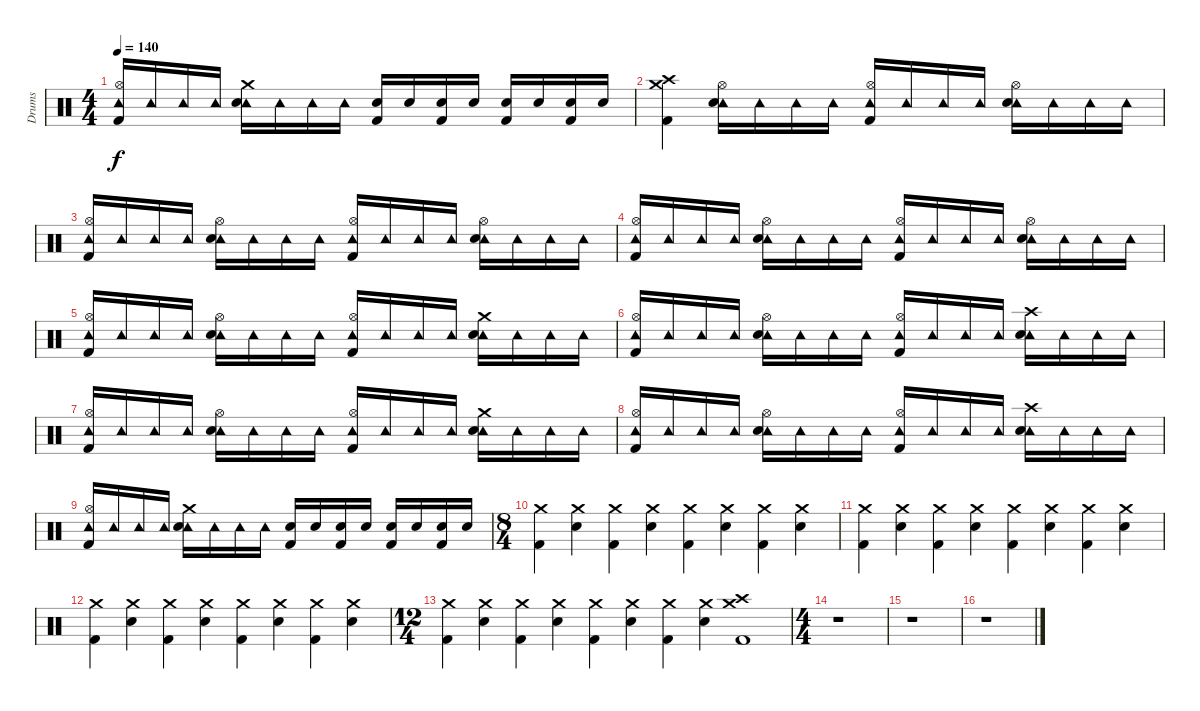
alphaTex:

\track ("Drums" "Drums") {instrument percussion}
\staff {score}
\articulation defaults
\ts (4 4)
\tempo 140
\clef neutral
\ks c
("Tambourine (hit)" "Hi-Hat (open)" "Kick (hit) 2").16{dy f} "Tambourine (hit)".16 "Tambourine (hit)".16 "Tambourine (hit)".16 ("Tambourine (hit)" "Crash medium (hit)" "Snare (hit) 2").16 "Tambourine (hit)".16 "Tambourine (hit)".16 "Tambourine (hit)".16 ("Kick (hit) 2" "Snare (hit) 2").16 "Snare (hit) 2".16 ("Kick (hit) 2" "Snare (hit) 2").16 "Snare (hit) 2".16 ("Kick (hit) 2" "Snare (hit) 2").16 "Snare (hit) 2".16 ("Kick (hit) 2" "Snare (hit) 2").16 "Snare (hit) 2".16 |
("Crash medium (hit)" "Crash high (hit)" "Kick (hit) 2").4 ("Tambourine (hit)" "Hi-Hat (open)" "Snare (hit) 2").16 "Tambourine (hit)".16 "Tambourine (hit)".16 "Tambourine (hit)".16 ("Tambourine (hit)" "Hi-Hat (open)" "Kick (hit) 2").16 "Tambourine (hit)".16 "Tambourine (hit)".16 "Tambourine (hit)".16 ("Tambourine (hit)" "Hi-Hat (open)" "Snare (hit) 2").16 "Tambourine (hit)".16 "Tambourine (hit)".16 "Tambourine (hit)".16 |
("Tambourine (hit)" "Hi-Hat (open)" "Kick (hit) 2").16 "Tambourine (hit)".16 "Tambourine (hit)".16 "Tambourine (hit)".16 ("Tambourine (hit)" "Hi-Hat (open)" "Snare (hit) 2").16 "Tambourine (hit)".16 "Tambourine (hit)".16 "Tambourine (hit)".16 ("Tambourine (hit)" "Hi-Hat (open)" "Kick (hit) 2").16 "Tambourine (hit)".16 "Tambourine (hit)".16 "Tambourine (hit)".16 ("Tambourine (hit)" "Hi-Hat (open)" "Snare (hit) 2").16 "Tambourine (hit)".16 "Tambourine (hit)".16 "Tambourine (hit)".16 |
("Tambourine (hit)" "Hi-Hat (open)" "Kick (hit) 2").16 "Tambourine (hit)".16 "Tambourine (hit)".16 "Tambourine (hit)".16 ("Tambourine (hit)" "Hi-Hat (open)" "Snare (hit) 2").16 "Tambourine (hit)".16 "Tambourine (hit)".16 "Tambourine (hit)".16 ("Tambourine (hit)" "Hi-Hat (open)" "Kick (hit) 2").16 "Tambourine (hit)".16 "Tambourine (hit)".16 "Tambourine (hit)".16 ("Tambourine (hit)" "Hi-Hat (open)" "Snare (hit) 2").16 "Tambourine (hit)".16 "Tambourine (hit)".16 "Tambourine (hit)".16 |
("Tambourine (hit)" "Hi-Hat (open)" "Kick (hit) 2").16 "Tambourine (hit)".16 "Tambourine (hit)".16 "Tambourine (hit)".16 ("Tambourine (hit)" "Hi-Hat (open)" "Snare (hit) 2").16 "Tambourine (hit)".16 "Tambourine (hit)".16 "Tambourine (hit)".16 ("Tambourine (hit)" "Hi-Hat (open)" "Kick (hit) 2").16 "Tambourine (hit)".16 "Tambourine (hit)".16 "Tambourine (hit)".16 ("Tambourine (hit)" "Crash medium (hit)" "Snare (hit) 2").16 "Tambourine (hit)".16 "Tambourine (hit)".16 "Tambourine (hit)".16 |
("Tambourine (hit)" "Hi-Hat (open)" "Kick (hit) 2").16 "Tambourine (hit)".16 "Tambourine (hit)".16 "Tambourine (hit)".16 ("Tambourine (hit)" "Hi-Hat (open)" "Snare (hit) 2").16 "Tambourine (hit)".16 "Tambourine (hit)".16 "Tambourine (hit)".16 ("Tambourine (hit)" "Hi-Hat (open)" "Kick (hit) 2").16 "Tambourine (hit)".16 "Tambourine (hit)".16 "Tambourine (hit)".16 ("Tambourine (hit)" "Crash high (hit)" "Snare (hit) 2").16 "Tambourine (hit)".16 "Tambourine (hit)".16 "Tambourine (hit)".16 |
("Tambourine (hit)" "Hi-Hat (open)" "Kick (hit) 2").16 "Tambourine (hit)".16 "Tambourine (hit)".16 "Tambourine (hit)".16 ("Tambourine (hit)" "Hi-Hat (open)" "Snare (hit) 2").16 "Tambourine (hit)".16 "Tambourine (hit)".16 "Tambourine (hit)".16 ("Tambourine (hit)" "Hi-Hat (open)" "Kick (hit) 2").16 "Tambourine (hit)".16 "Tambourine (hit)".16 "Tambourine (hit)".16 ("Tambourine (hit)" "Crash medium (hit)" "Snare (hit) 2").16 "Tambourine (hit)".16 "Tambourine (hit)".16 "Tambourine (hit)".16 |
("Tambourine (hit)" "Hi-Hat (open)" "Kick (hit) 2").16 "Tambourine (hit)".16 "Tambourine (hit)".16 "Tambourine (hit)".16 ("Tambourine (hit)" "Hi-Hat (open)" "Snare (hit) 2").16 "Tambourine (hit)".16 "Tambourine (hit)".16 "Tambourine (hit)".16 ("Tambourine (hit)" "Hi-Hat (open)" "Kick (hit) 2").16 "Tambourine (hit)".16 "Tambourine (hit)".16 "Tambourine (hit)".16 ("Tambourine (hit)" "Crash high (hit)" "Snare (hit) 2").16 "Tambourine (hit)".16 "Tambourine (hit)".16 "Tambourine (hit)".16 |
("Tambourine (hit)" "Hi-Hat (open)" "Kick (hit) 2").16 "Tambourine (hit)".16 "Tambourine (hit)".16 "Tambourine (hit)".16 ("Tambourine (hit)" "Crash medium (hit)" "Snare (hit) 2").16 "Tambourine (hit)".16 "Tambourine (hit)".16 "Tambourine (hit)".16 ("Snare (hit) 2" "Kick (hit) 2").16 "Snare (hit) 2".16 ("Snare (hit) 2" "Kick (hit) 2").16 "Snare (hit) 2".16 ("Snare (hit) 2" "Kick (hit) 2").16 "Snare (hit) 2".16 ("Snare (hit) 2" "Kick (hit) 2").16 "Snare (hit) 2".16 |
\ts (8 4)
("Crash medium (hit)" "Kick (hit) 2").4 ("Crash medium (hit)" "Snare (hit) 2").4 ("Crash medium (hit)" "Kick (hit) 2").4 ("Crash medium (hit)" "Snare (hit) 2").4 ("Crash medium (hit)" "Kick (hit) 2").4 ("Crash medium (hit)" "Snare (hit) 2").4 ("Crash medium (hit)" "Kick (hit) 2").4 ("Crash medium (hit)" "Snare (hit) 2").4 |
("Crash medium (hit)" "Kick (hit) 2").4 ("Crash medium (hit)" "Snare (hit) 2").4 ("Crash medium (hit)" "Kick (hit) 2").4 ("Crash medium (hit)" "Snare (hit) 2").4 ("Crash medium (hit)" "Kick (hit) 2").4 ("Crash medium (hit)" "Snare (hit) 2").4 ("Crash medium (hit)" "Kick (hit) 2").4 ("Crash medium (hit)" "Snare (hit) 2").4 |
("Crash medium (hit)" "Kick (hit) 2").4 ("Crash medium (hit)" "Snare (hit) 2").4 ("Crash medium (hit)" "Kick (hit) 2").4 ("Crash medium (hit)" "Snare (hit) 2").4 ("Crash medium (hit)" "Kick (hit) 2").4 ("Crash medium (hit)" "Snare (hit) 2").4 ("Crash medium (hit)" "Kick (hit) 2").4 ("Crash medium (hit)" "Snare (hit) 2").4 |
\ts (12 4)
("Crash medium (hit)" "Kick (hit) 2").4 ("Crash medium (hit)" "Snare (hit) 2").4 ("Crash medium (hit)" "Kick (hit) 2").4 ("Crash medium (hit)" "Snare (hit) 2").4 ("Crash medium (hit)" "Kick (hit) 2").4 ("Crash medium (hit)" "Snare (hit) 2").4 ("Crash medium (hit)" "Kick (hit) 2").4 ("Crash medium (hit)" "Snare (hit) 2").4 ("Crash high (hit)" "Crash medium (hit)" "Kick (hit) 2").1 |
\ts (4 4)
r.1 |
r.1 |
r.1
